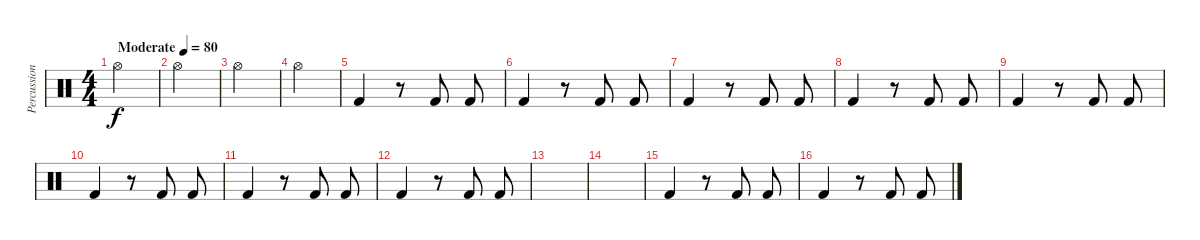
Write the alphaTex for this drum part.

\track ("Percussion" "Percussion") {instrument percussion}
\staff {score}
\articulation defaults
\ts (4 4)
\tempo (80 "Moderate")
\clef neutral
\ks c "Hi-Hat (open)".4{dy f}
|
"Hi-Hat (open)".4 |
"Hi-Hat (open)".4 |
"Hi-Hat (open)".4 |
"Kick (hit) 2".4 r.8 "Kick (hit) 2".8 "Kick (hit) 2".8 |
"Kick (hit) 2".4 r.8 "Kick (hit) 2".8 "Kick (hit) 2".8 |
"Kick (hit) 2".4 r.8 "Kick (hit) 2".8 "Kick (hit) 2".8 |
"Kick (hit) 2".4 r.8 "Kick (hit) 2".8 "Kick (hit) 2".8 |
"Kick (hit) 2".4 r.8 "Kick (hit) 2".8 "Kick (hit) 2".8 |
"Kick (hit) 2".4 r.8 "Kick (hit) 2".8 "Kick (hit) 2".8 |
"Kick (hit) 2".4 r.8 "Kick (hit) 2".8 "Kick (hit) 2".8 |
"Kick (hit) 2".4 r.8 "Kick (hit) 2".8 "Kick (hit) 2".8 |
|
|
"Kick (hit) 2".4 r.8 "Kick (hit) 2".8 "Kick (hit) 2".8 |
"Kick (hit) 2".4 r.8 "Kick (hit) 2".8 "Kick (hit) 2".8
